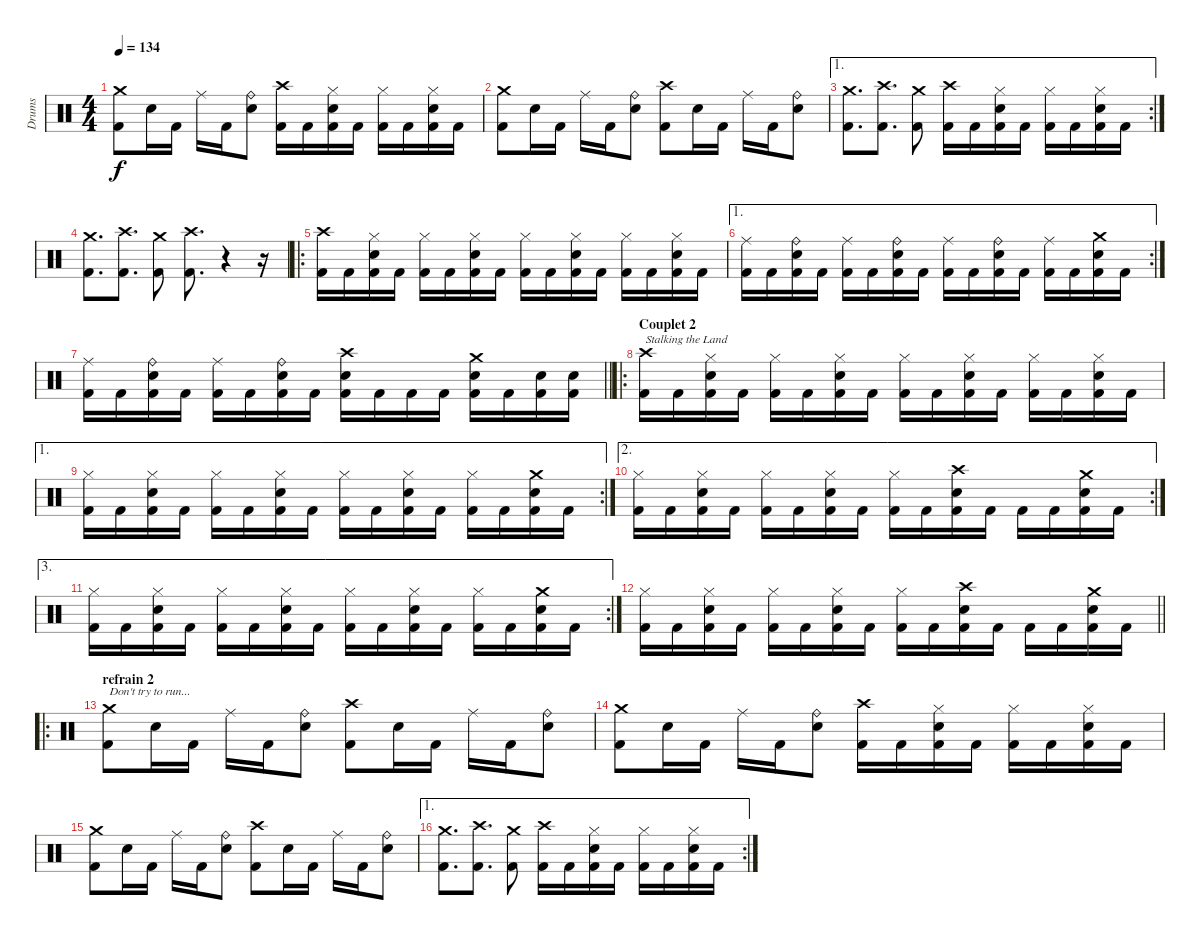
\track ("Drums" "Drums") {instrument percussion}
\staff {score}
\articulation defaults
\ts (4 4)
\tempo 134
\clef neutral
\ks c
("Crash medium (hit)" "Kick (hit) 2").8{dy f} "Electric Snare (hit)".16 "Kick (hit) 2".16 "Ride (middle)".16 "Kick (hit) 2".16 ("Ride (bell)" "Electric Snare (hit)").8 ("Crash high (hit)" "Kick (hit) 2").16 "Kick (hit) 2".16 ("Hi-Hat (closed)" "Electric Snare (hit)" "Kick (hit) 2").16 "Kick (hit) 2".16 ("Hi-Hat (closed)" "Kick (hit) 2").16 "Kick (hit) 2".16 ("Hi-Hat (closed)" "Electric Snare (hit)" "Kick (hit) 2").16 "Kick (hit) 2".16 |
("Crash medium (hit)" "Kick (hit) 2").8 "Electric Snare (hit)".16 "Kick (hit) 2".16 "Ride (middle)".16 "Kick (hit) 2".16 ("Ride (bell)" "Electric Snare (hit)").8 ("Crash high (hit)" "Kick (hit) 2").8 "Electric Snare (hit)".16 "Kick (hit) 2".16 "Ride (middle)".16 "Kick (hit) 2".16 ("Ride (bell)" "Electric Snare (hit)").8 |
\ae 1
\rc 2
("Crash medium (hit)" "Kick (hit) 2").8{d} ("Crash high (hit)" "Kick (hit) 2").8{d} ("Crash medium (hit)" "Kick (hit) 2").8 ("Crash high (hit)" "Kick (hit) 2").16 "Kick (hit) 2".16 ("Hi-Hat (closed)" "Electric Snare (hit)" "Kick (hit) 2").16 "Kick (hit) 2".16 ("Hi-Hat (closed)" "Kick (hit) 2").16 "Kick (hit) 2".16 ("Hi-Hat (closed)" "Electric Snare (hit)" "Kick (hit) 2").16 "Kick (hit) 2".16 |
("Crash medium (hit)" "Kick (hit) 2").8{d} ("Crash high (hit)" "Kick (hit) 2").8{d} ("Crash medium (hit)" "Kick (hit) 2").8 ("Crash high (hit)" "Kick (hit) 2").8{d} r.4 r.16 |
\ro
("Crash high (hit)" "Kick (hit) 2").16 "Kick (hit) 2".16 ("Hi-Hat (closed)" "Electric Snare (hit)" "Kick (hit) 2").16 "Kick (hit) 2".16 ("Hi-Hat (closed)" "Kick (hit) 2").16 "Kick (hit) 2".16 ("Hi-Hat (closed)" "Electric Snare (hit)" "Kick (hit) 2").16 "Kick (hit) 2".16 ("Hi-Hat (closed)" "Kick (hit) 2").16 "Kick (hit) 2".16 ("Hi-Hat (closed)" "Electric Snare (hit)" "Kick (hit) 2").16 "Kick (hit) 2".16 ("Hi-Hat (closed)" "Kick (hit) 2").16 "Kick (hit) 2".16 ("Hi-Hat (closed)" "Electric Snare (hit)" "Kick (hit) 2").16 "Kick (hit) 2".16 |
\ae 1
\rc 2
("Ride (middle)" "Kick (hit) 2").16 "Kick (hit) 2".16 ("Ride (bell)" "Electric Snare (hit)" "Kick (hit) 2").16 "Kick (hit) 2".16 ("Ride (middle)" "Kick (hit) 2").16 "Kick (hit) 2".16 ("Ride (bell)" "Electric Snare (hit)" "Kick (hit) 2").16 "Kick (hit) 2".16 ("Ride (middle)" "Kick (hit) 2").16 "Kick (hit) 2".16 ("Ride (bell)" "Electric Snare (hit)" "Kick (hit) 2").16 "Kick (hit) 2".16 ("Ride (middle)" "Kick (hit) 2").16 "Kick (hit) 2".16 ("Crash medium (hit)" "Electric Snare (hit)" "Kick (hit) 2").16 "Kick (hit) 2".16 |
\barLineRight lightlight
("Ride (middle)" "Kick (hit) 2").16 "Kick (hit) 2".16 ("Ride (bell)" "Electric Snare (hit)" "Kick (hit) 2").16 "Kick (hit) 2".16 ("Ride (middle)" "Kick (hit) 2").16 "Kick (hit) 2".16 ("Ride (bell)" "Electric Snare (hit)" "Kick (hit) 2").16 "Kick (hit) 2".16 ("Crash high (hit)" "Electric Snare (hit)" "Kick (hit) 2").16 "Kick (hit) 2".16 "Kick (hit) 2".16 "Kick (hit) 2".16 ("Crash medium (hit)" "Electric Snare (hit)" "Kick (hit) 2").16 "Kick (hit) 2".16 ("Electric Snare (hit)" "Kick (hit) 2").16 ("Electric Snare (hit)" "Kick (hit) 2").16 |
\ro
\section ("" "Couplet 2")
("Crash high (hit)" "Kick (hit) 2").16{txt "Stalking the Land"} "Kick (hit) 2".16 ("Hi-Hat (closed)" "Electric Snare (hit)" "Kick (hit) 2").16 "Kick (hit) 2".16 ("Hi-Hat (closed)" "Kick (hit) 2").16 "Kick (hit) 2".16 ("Hi-Hat (closed)" "Electric Snare (hit)" "Kick (hit) 2").16 "Kick (hit) 2".16 ("Hi-Hat (closed)" "Kick (hit) 2").16 "Kick (hit) 2".16 ("Hi-Hat (closed)" "Electric Snare (hit)" "Kick (hit) 2").16 "Kick (hit) 2".16 ("Hi-Hat (closed)" "Kick (hit) 2").16 "Kick (hit) 2".16 ("Hi-Hat (closed)" "Electric Snare (hit)" "Kick (hit) 2").16 "Kick (hit) 2".16 |
\ae 1
\rc 2
("Hi-Hat (closed)" "Kick (hit) 2").16 "Kick (hit) 2".16 ("Hi-Hat (closed)" "Electric Snare (hit)" "Kick (hit) 2").16 "Kick (hit) 2".16 ("Hi-Hat (closed)" "Kick (hit) 2").16 "Kick (hit) 2".16 ("Hi-Hat (closed)" "Electric Snare (hit)" "Kick (hit) 2").16 "Kick (hit) 2".16 ("Hi-Hat (closed)" "Kick (hit) 2").16 "Kick (hit) 2".16 ("Hi-Hat (closed)" "Electric Snare (hit)" "Kick (hit) 2").16 "Kick (hit) 2".16 ("Hi-Hat (closed)" "Kick (hit) 2").16 "Kick (hit) 2".16 ("Crash medium (hit)" "Electric Snare (hit)" "Kick (hit) 2").16 "Kick (hit) 2".16 |
\ae 2
\rc 2
("Hi-Hat (closed)" "Kick (hit) 2").16 "Kick (hit) 2".16 ("Hi-Hat (closed)" "Electric Snare (hit)" "Kick (hit) 2").16 "Kick (hit) 2".16 ("Hi-Hat (closed)" "Kick (hit) 2").16 "Kick (hit) 2".16 ("Hi-Hat (closed)" "Electric Snare (hit)" "Kick (hit) 2").16 "Kick (hit) 2".16 ("Hi-Hat (closed)" "Kick (hit) 2").16 "Kick (hit) 2".16 ("Crash high (hit)" "Electric Snare (hit)" "Kick (hit) 2").16 "Kick (hit) 2".16 "Kick (hit) 2".16 "Kick (hit) 2".16 ("Crash medium (hit)" "Electric Snare (hit)" "Kick (hit) 2").16 "Kick (hit) 2".16 |
\ae 3
\rc 2
("Hi-Hat (closed)" "Kick (hit) 2").16 "Kick (hit) 2".16 ("Hi-Hat (closed)" "Electric Snare (hit)" "Kick (hit) 2").16 "Kick (hit) 2".16 ("Hi-Hat (closed)" "Kick (hit) 2").16 "Kick (hit) 2".16 ("Hi-Hat (closed)" "Electric Snare (hit)" "Kick (hit) 2").16 "Kick (hit) 2".16 ("Hi-Hat (closed)" "Kick (hit) 2").16 "Kick (hit) 2".16 ("Hi-Hat (closed)" "Electric Snare (hit)" "Kick (hit) 2").16 "Kick (hit) 2".16 ("Hi-Hat (closed)" "Kick (hit) 2").16 "Kick (hit) 2".16 ("Crash medium (hit)" "Electric Snare (hit)" "Kick (hit) 2").16 "Kick (hit) 2".16 |
\barLineRight lightlight
("Hi-Hat (closed)" "Kick (hit) 2").16 "Kick (hit) 2".16 ("Hi-Hat (closed)" "Electric Snare (hit)" "Kick (hit) 2").16 "Kick (hit) 2".16 ("Hi-Hat (closed)" "Kick (hit) 2").16 "Kick (hit) 2".16 ("Hi-Hat (closed)" "Electric Snare (hit)" "Kick (hit) 2").16 "Kick (hit) 2".16 ("Hi-Hat (closed)" "Kick (hit) 2").16 "Kick (hit) 2".16 ("Crash high (hit)" "Electric Snare (hit)" "Kick (hit) 2").16 "Kick (hit) 2".16 "Kick (hit) 2".16 "Kick (hit) 2".16 ("Crash medium (hit)" "Electric Snare (hit)" "Kick (hit) 2").16 "Kick (hit) 2".16 |
\ro
\section ("" "refrain 2")
("Crash medium (hit)" "Kick (hit) 2").8{txt "Don't try to run..."} "Electric Snare (hit)".16 "Kick (hit) 2".16 "Ride (middle)".16 "Kick (hit) 2".16 ("Ride (bell)" "Electric Snare (hit)").8 ("Crash high (hit)" "Kick (hit) 2").8 "Electric Snare (hit)".16 "Kick (hit) 2".16 "Ride (middle)".16 "Kick (hit) 2".16 ("Ride (bell)" "Electric Snare (hit)").8 |
("Crash medium (hit)" "Kick (hit) 2").8 "Electric Snare (hit)".16 "Kick (hit) 2".16 "Ride (middle)".16 "Kick (hit) 2".16 ("Ride (bell)" "Electric Snare (hit)").8 ("Crash high (hit)" "Kick (hit) 2").16 "Kick (hit) 2".16 ("Hi-Hat (closed)" "Electric Snare (hit)" "Kick (hit) 2").16 "Kick (hit) 2".16 ("Hi-Hat (closed)" "Kick (hit) 2").16 "Kick (hit) 2".16 ("Hi-Hat (closed)" "Electric Snare (hit)" "Kick (hit) 2").16 "Kick (hit) 2".16 |
("Crash medium (hit)" "Kick (hit) 2").8 "Electric Snare (hit)".16 "Kick (hit) 2".16 "Ride (middle)".16 "Kick (hit) 2".16 ("Ride (bell)" "Electric Snare (hit)").8 ("Crash high (hit)" "Kick (hit) 2").8 "Electric Snare (hit)".16 "Kick (hit) 2".16 "Ride (middle)".16 "Kick (hit) 2".16 ("Ride (bell)" "Electric Snare (hit)").8 |
\ae 1
\rc 2
("Crash medium (hit)" "Kick (hit) 2").8{d} ("Crash high (hit)" "Kick (hit) 2").8{d} ("Crash medium (hit)" "Kick (hit) 2").8 ("Crash high (hit)" "Kick (hit) 2").16 "Kick (hit) 2".16 ("Hi-Hat (closed)" "Electric Snare (hit)" "Kick (hit) 2").16 "Kick (hit) 2".16 ("Hi-Hat (closed)" "Kick (hit) 2").16 "Kick (hit) 2".16 ("Hi-Hat (closed)" "Electric Snare (hit)" "Kick (hit) 2").16 "Kick (hit) 2".16
